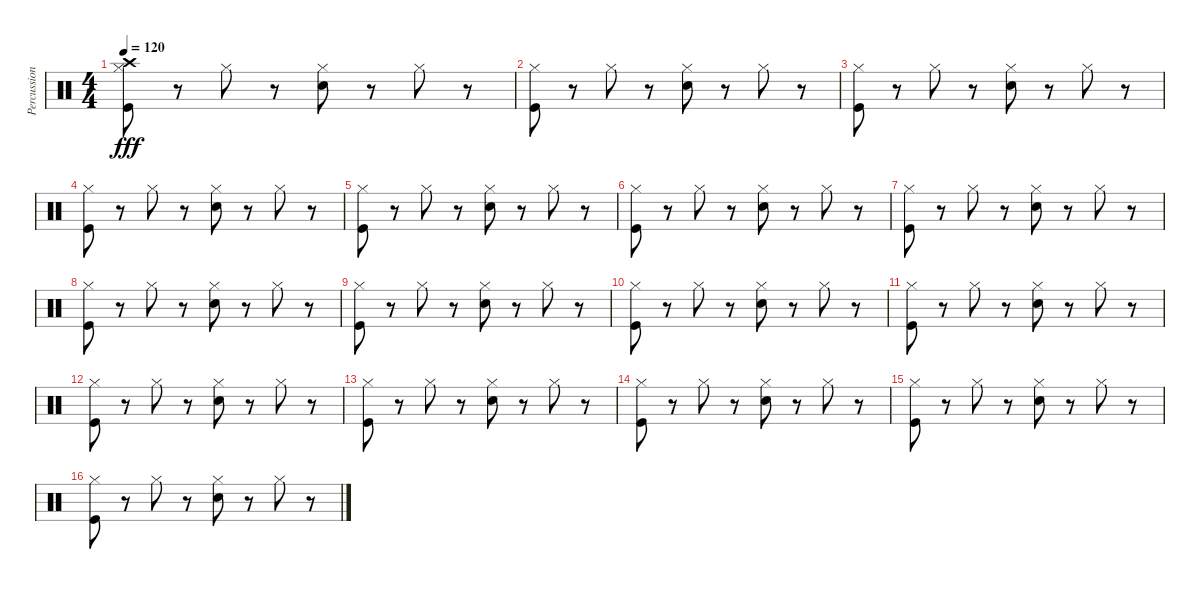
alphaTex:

\track ("Percussion(Satish)" "Percussion") {instrument percussion}
\staff {score}
\articulation defaults
\ts (4 4)
\tempo 120
\clef neutral
\ks c
("Hi-Hat (closed)" "Crash high (hit)" "Kick (hit)").8{dy fff} r.8 "Hi-Hat (closed)".8 r.8 ("Hi-Hat (closed)" "Snare (hit) 2").8 r.8 "Hi-Hat (closed)".8 r.8 |
("Hi-Hat (closed)" "Kick (hit)").8 r.8 "Hi-Hat (closed)".8 r.8 ("Hi-Hat (closed)" "Snare (hit) 2").8 r.8 "Hi-Hat (closed)".8 r.8 |
("Hi-Hat (closed)" "Kick (hit)").8 r.8 "Hi-Hat (closed)".8 r.8 ("Hi-Hat (closed)" "Snare (hit) 2").8 r.8 "Hi-Hat (closed)".8 r.8 |
("Hi-Hat (closed)" "Kick (hit)").8 r.8 "Hi-Hat (closed)".8 r.8 ("Hi-Hat (closed)" "Snare (hit) 2").8 r.8 "Hi-Hat (closed)".8 r.8 |
("Hi-Hat (closed)" "Kick (hit)").8 r.8 "Hi-Hat (closed)".8 r.8 ("Hi-Hat (closed)" "Snare (hit) 2").8 r.8 "Hi-Hat (closed)".8 r.8 |
("Hi-Hat (closed)" "Kick (hit)").8 r.8 "Hi-Hat (closed)".8 r.8 ("Hi-Hat (closed)" "Snare (hit) 2").8 r.8 "Hi-Hat (closed)".8 r.8 |
("Hi-Hat (closed)" "Kick (hit)").8 r.8 "Hi-Hat (closed)".8 r.8 ("Hi-Hat (closed)" "Snare (hit) 2").8 r.8 "Hi-Hat (closed)".8 r.8 |
("Hi-Hat (closed)" "Kick (hit)").8 r.8 "Hi-Hat (closed)".8 r.8 ("Hi-Hat (closed)" "Snare (hit) 2").8 r.8 "Hi-Hat (closed)".8 r.8 |
("Hi-Hat (closed)" "Kick (hit)").8 r.8 "Hi-Hat (closed)".8 r.8 ("Hi-Hat (closed)" "Snare (hit) 2").8 r.8 "Hi-Hat (closed)".8 r.8 |
("Hi-Hat (closed)" "Kick (hit)").8 r.8 "Hi-Hat (closed)".8 r.8 ("Hi-Hat (closed)" "Snare (hit) 2").8 r.8 "Hi-Hat (closed)".8 r.8 |
("Hi-Hat (closed)" "Kick (hit)").8 r.8 "Hi-Hat (closed)".8 r.8 ("Hi-Hat (closed)" "Snare (hit) 2").8 r.8 "Hi-Hat (closed)".8 r.8 |
("Hi-Hat (closed)" "Kick (hit)").8 r.8 "Hi-Hat (closed)".8 r.8 ("Hi-Hat (closed)" "Snare (hit) 2").8 r.8 "Hi-Hat (closed)".8 r.8 |
("Hi-Hat (closed)" "Kick (hit)").8 r.8 "Hi-Hat (closed)".8 r.8 ("Hi-Hat (closed)" "Snare (hit) 2").8 r.8 "Hi-Hat (closed)".8 r.8 |
("Hi-Hat (closed)" "Kick (hit)").8 r.8 "Hi-Hat (closed)".8 r.8 ("Hi-Hat (closed)" "Snare (hit) 2").8 r.8 "Hi-Hat (closed)".8 r.8 |
("Hi-Hat (closed)" "Kick (hit)").8 r.8 "Hi-Hat (closed)".8 r.8 ("Hi-Hat (closed)" "Snare (hit) 2").8 r.8 "Hi-Hat (closed)".8 r.8 |
("Hi-Hat (closed)" "Kick (hit)").8 r.8 "Hi-Hat (closed)".8 r.8 ("Hi-Hat (closed)" "Snare (hit) 2").8 r.8 "Hi-Hat (closed)".8 r.8
